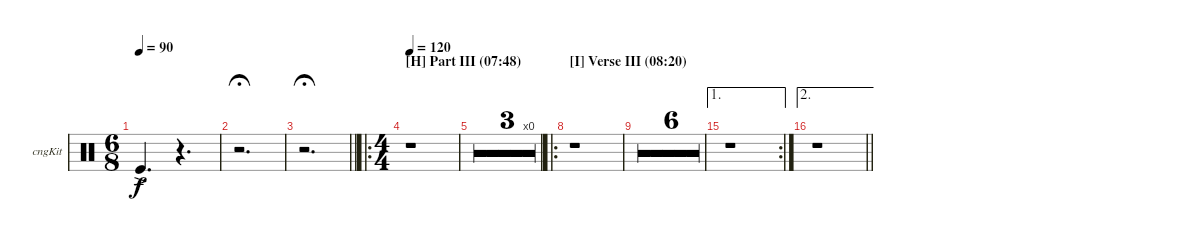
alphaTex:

\defaultSystemsLayout 4
\bracketExtendMode groupsimilarinstruments
\firstSystemTrackNameOrientation horizontal
\otherSystemsTrackNameOrientation horizontal
\track ("Congas" "cngKit") {multiBarRest instrument percussion}
\staff {score}
\articulation defaults
\ts (6 8)
\tempo 90
\clef neutral
\ks c "Kick (hit)"{ac}.4{d dy f}
r.4{d} |
r.2{d fermata (medium 1)} |
\barLineRight lightlight
r.2{d fermata (medium 1)} |
\ro
\ts (4 4)
\section ("H" "Part III (07:48)")
\tempo 120
r.1 |
r.1 |
r.1 |
\rc 4
r.1 |
\ro
\section ("I" "Verse III (08:20)")
r.1 |
r.1 |
r.1 |
r.1 |
r.1 |
r.1 |
r.1 |
\ae 1
\rc 2
r.1 |
\ae 2
\barLineRight lightlight
r.1
